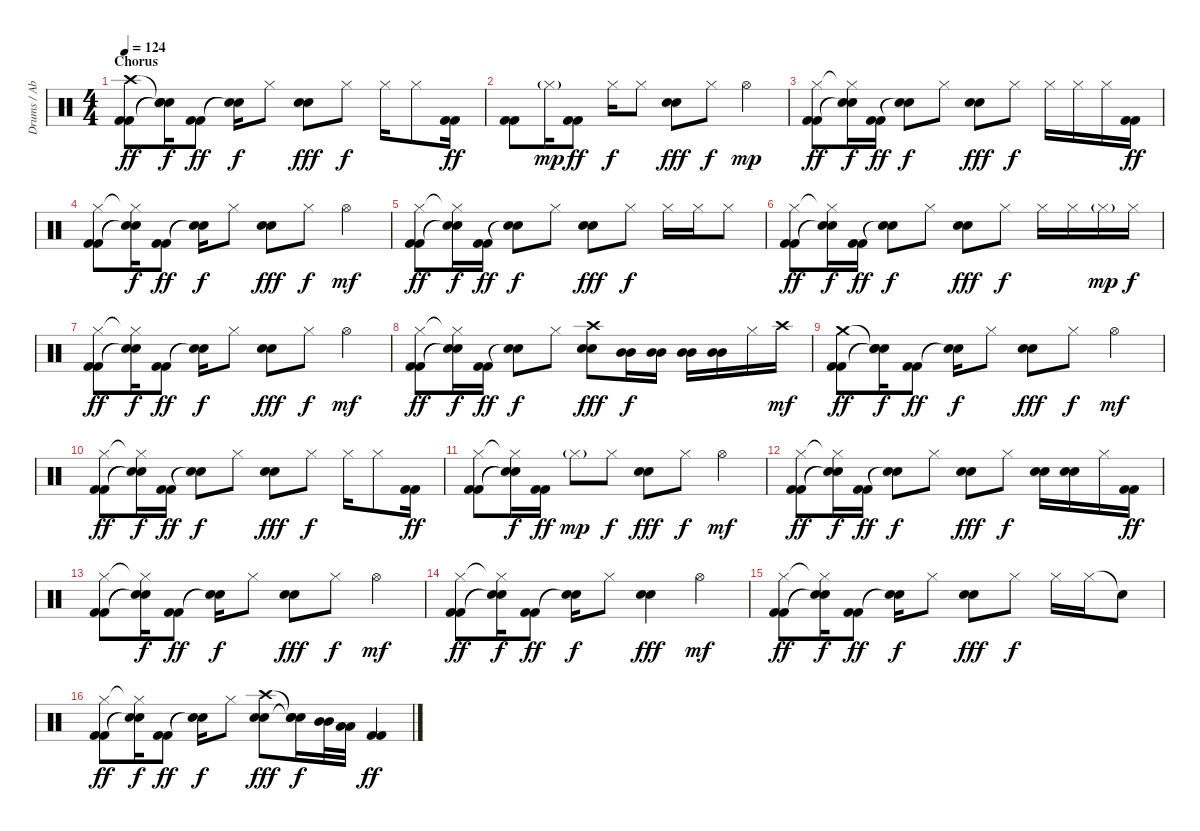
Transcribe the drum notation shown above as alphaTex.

\track ("Drums / Abe Cunningham" "Drums / Ab") {instrument percussion}
\staff {score}
\articulation defaults
\ts (4 4)
\section ("" "Chorus")
\tempo 124
\clef neutral
\ks c
("Crash high (hit)" "Kick (hit) 2" "Kick (hit) 2").8{dy ff} ("Snare (hit)"{t} "Snare (hit)"{t} "Snare (hit)"{t}).16{dy f} ("Kick (hit) 2" "Kick (hit) 2").8{dy ff} ("Snare (hit)"{t} "Snare (hit)"{t}).16{dy f} "Hi-Hat (closed)".8 ("Electric Snare (hit)" "Electric Snare (hit)").8{dy fff} "Hi-Hat (closed)".8{dy f} "Hi-Hat (closed)".16 "Hi-Hat (closed)".8 ("Kick (hit) 2" "Kick (hit) 2").16{dy ff} |
("Kick (hit) 2" "Kick (hit) 2").8 "Hi-Hat (closed)"{g}.16{dy mp} ("Kick (hit) 2" "Kick (hit) 2").8{dy ff} "Hi-Hat (closed)".16{dy f} "Hi-Hat (closed)".8 ("Electric Snare (hit)" "Electric Snare (hit)").8{dy fff} "Hi-Hat (closed)".8{dy f} "Hi-Hat (open)".4{dy mp} |
("Hi-Hat (closed)" "Kick (hit) 2" "Kick (hit) 2").8{dy ff} ("Hi-Hat (closed)"{t} "Snare (hit)"{t} "Snare (hit)"{t}).16{dy f} ("Kick (hit) 2" "Kick (hit) 2").16{dy ff} ("Snare (hit)"{t} "Snare (hit)"{t}).8{dy f} "Hi-Hat (closed)".8 ("Electric Snare (hit)" "Electric Snare (hit)").8{dy fff} "Hi-Hat (closed)".8{dy f} "Hi-Hat (closed)".16 "Hi-Hat (closed)".16 "Hi-Hat (closed)".16 ("Kick (hit) 2" "Kick (hit) 2").16{dy ff} |
("Hi-Hat (closed)" "Kick (hit) 2" "Kick (hit) 2").8 ("Hi-Hat (closed)"{t} "Snare (hit)"{t} "Snare (hit)"{t}).16{dy f} ("Kick (hit) 2" "Kick (hit) 2").8{dy ff} ("Snare (hit)"{t} "Snare (hit)"{t}).16{dy f} "Hi-Hat (closed)".8 ("Electric Snare (hit)" "Electric Snare (hit)").8{dy fff} "Hi-Hat (closed)".8{dy f} "Hi-Hat (open)".4{dy mf} |
("Hi-Hat (closed)" "Kick (hit) 2" "Kick (hit) 2").8{dy ff} ("Hi-Hat (closed)"{t} "Snare (hit)"{t} "Snare (hit)"{t}).16{dy f} ("Kick (hit) 2" "Kick (hit) 2").16{dy ff} ("Snare (hit)"{t} "Snare (hit)"{t}).8{dy f} "Hi-Hat (closed)".8 ("Electric Snare (hit)" "Electric Snare (hit)").8{dy fff} "Hi-Hat (closed)".8{dy f} "Hi-Hat (closed)".16 "Hi-Hat (closed)".16 "Hi-Hat (closed)".8 |
("Hi-Hat (closed)" "Kick (hit) 2" "Kick (hit) 2").8{dy ff} ("Hi-Hat (closed)"{t} "Snare (hit)"{t} "Snare (hit)"{t}).16{dy f} ("Kick (hit) 2" "Kick (hit) 2").16{dy ff} ("Snare (hit)"{t} "Snare (hit)"{t}).8{dy f} "Hi-Hat (closed)".8 ("Electric Snare (hit)" "Electric Snare (hit)").8{dy fff} "Hi-Hat (closed)".8{dy f} "Hi-Hat (closed)".16 "Hi-Hat (closed)".16 "Hi-Hat (closed)"{g}.16{dy mp} "Hi-Hat (closed)".16{dy f} |
("Hi-Hat (closed)" "Kick (hit) 2" "Kick (hit) 2").8{dy ff} ("Hi-Hat (closed)"{t} "Snare (hit)"{t} "Snare (hit)"{t}).16{dy f} ("Kick (hit) 2" "Kick (hit) 2").8{dy ff} ("Snare (hit)"{t} "Snare (hit)"{t}).16{dy f} "Hi-Hat (closed)".8 ("Electric Snare (hit)" "Electric Snare (hit)").8{dy fff} "Hi-Hat (closed)".8{dy f} "Hi-Hat (open)".4{dy mf} |
("Hi-Hat (closed)" "Kick (hit) 2" "Kick (hit) 2").8{dy ff} ("Hi-Hat (closed)"{t} "Snare (hit)"{t} "Snare (hit)"{t}).16{dy f} ("Kick (hit) 2" "Kick (hit) 2").16{dy ff} ("Snare (hit)"{t} "Snare (hit)"{t}).8{dy f} "Hi-Hat (closed)".8 ("Crash high (hit)" "Electric Snare (hit)" "Electric Snare (hit)").8{dy fff} ("Mid Tom (hit)" "Mid Tom (hit)").16{dy f} ("Mid Tom (hit)" "Mid Tom (hit)").16 ("Mid Tom (hit)" "Mid Tom (hit)").16 ("Mid Tom (hit)" "Mid Tom (hit)").16 "Hi-Hat (closed)".16 "Crash high (hit)".16{dy mf} |
("Crash medium (hit)" "Kick (hit) 2" "Kick (hit) 2").8{dy ff} ("Snare (hit)"{t} "Snare (hit)"{t} "Snare (hit)"{t}).16{dy f} ("Kick (hit) 2" "Kick (hit) 2").8{dy ff} ("Snare (hit)"{t} "Snare (hit)"{t}).16{dy f} "Hi-Hat (closed)".8 ("Electric Snare (hit)" "Electric Snare (hit)").8{dy fff} "Hi-Hat (closed)".8{dy f} "Hi-Hat (open)".4{dy mf} |
("Hi-Hat (closed)" "Kick (hit) 2" "Kick (hit) 2").8{dy ff} ("Hi-Hat (closed)"{t} "Snare (hit)"{t} "Snare (hit)"{t}).16{dy f} ("Kick (hit) 2" "Kick (hit) 2").16{dy ff} ("Snare (hit)"{t} "Snare (hit)"{t}).8{dy f} "Hi-Hat (closed)".8 ("Electric Snare (hit)" "Electric Snare (hit)").8{dy fff} "Hi-Hat (closed)".8{dy f} "Hi-Hat (closed)".16 "Hi-Hat (closed)".8 ("Kick (hit) 2" "Kick (hit) 2").16{dy ff} |
("Hi-Hat (closed)" "Kick (hit) 2" "Kick (hit) 2").8 ("Hi-Hat (closed)"{t} "Snare (hit)"{t} "Snare (hit)"{t}).16{dy f} ("Kick (hit) 2" "Kick (hit) 2").16{dy ff} "Hi-Hat (closed)"{g}.8{dy mp} "Hi-Hat (closed)".8{dy f} ("Electric Snare (hit)" "Electric Snare (hit)").8{dy fff} "Hi-Hat (closed)".8{dy f} "Hi-Hat (open)".4{dy mf} |
("Hi-Hat (closed)" "Kick (hit) 2" "Kick (hit) 2").8{dy ff} ("Hi-Hat (closed)"{t} "Snare (hit)"{t} "Snare (hit)"{t}).16{dy f} ("Kick (hit) 2" "Kick (hit) 2").16{dy ff} ("Snare (hit)"{t} "Snare (hit)"{t}).8{dy f} "Hi-Hat (closed)".8 ("Electric Snare (hit)" "Electric Snare (hit)").8{dy fff} "Hi-Hat (closed)".8{dy f} ("Electric Snare (hit)" "Electric Snare (hit)").16 ("Electric Snare (hit)" "Electric Snare (hit)").16 "Hi-Hat (closed)".16 ("Kick (hit) 2" "Kick (hit) 2").16{dy ff} |
("Hi-Hat (closed)" "Kick (hit) 2" "Kick (hit) 2").8 ("Hi-Hat (closed)"{t} "Snare (hit)"{t} "Snare (hit)"{t}).16{dy f} ("Kick (hit) 2" "Kick (hit) 2").8{dy ff} ("Snare (hit)"{t} "Snare (hit)"{t}).16{dy f} "Hi-Hat (closed)".8 ("Electric Snare (hit)" "Electric Snare (hit)").8{dy fff} "Hi-Hat (closed)".8{dy f} "Hi-Hat (open)".4{dy mf} |
("Hi-Hat (closed)" "Kick (hit) 2" "Kick (hit) 2").8{dy ff} ("Hi-Hat (closed)"{t} "Snare (hit)"{t} "Snare (hit)"{t}).16{dy f} ("Kick (hit) 2" "Kick (hit) 2").8{dy ff} ("Snare (hit)"{t} "Snare (hit)"{t}).16{dy f} "Hi-Hat (closed)".8 ("Electric Snare (hit)" "Electric Snare (hit)").4{dy fff} "Hi-Hat (open)".4{dy mf} |
("Hi-Hat (closed)" "Kick (hit) 2" "Kick (hit) 2").8{dy ff} ("Hi-Hat (closed)"{t} "Snare (hit)"{t} "Snare (hit)"{t}).16{dy f} ("Kick (hit) 2" "Kick (hit) 2").8{dy ff} ("Snare (hit)"{t} "Snare (hit)"{t}).16{dy f} "Hi-Hat (closed)".8 ("Electric Snare (hit)" "Electric Snare (hit)").8{dy fff} "Hi-Hat (closed)".8{dy f} "Hi-Hat (closed)".16 "Hi-Hat (closed)".16 "Snare (hit)"{t}.8 |
("Hi-Hat (closed)" "Kick (hit) 2" "Kick (hit) 2").8{dy ff} ("Hi-Hat (closed)"{t} "Snare (hit)"{t} "Snare (hit)"{t}).16{dy f} ("Kick (hit) 2" "Kick (hit) 2").8{dy ff} ("Snare (hit)"{t} "Snare (hit)"{t}).16{dy f} "Hi-Hat (closed)".8 ("Crash high (hit)" "Electric Snare (hit)" "Electric Snare (hit)").8{dy fff} ("Snare (hit)"{t} "Snare (hit)"{t} "Snare (hit)"{t}).16{dy f} ("Mid Tom (hit)" "Mid Tom (hit)").32 ("Low Tom (hit)" "Low Tom (hit)").32 ("Kick (hit) 2" "Kick (hit) 2").4{dy ff}
